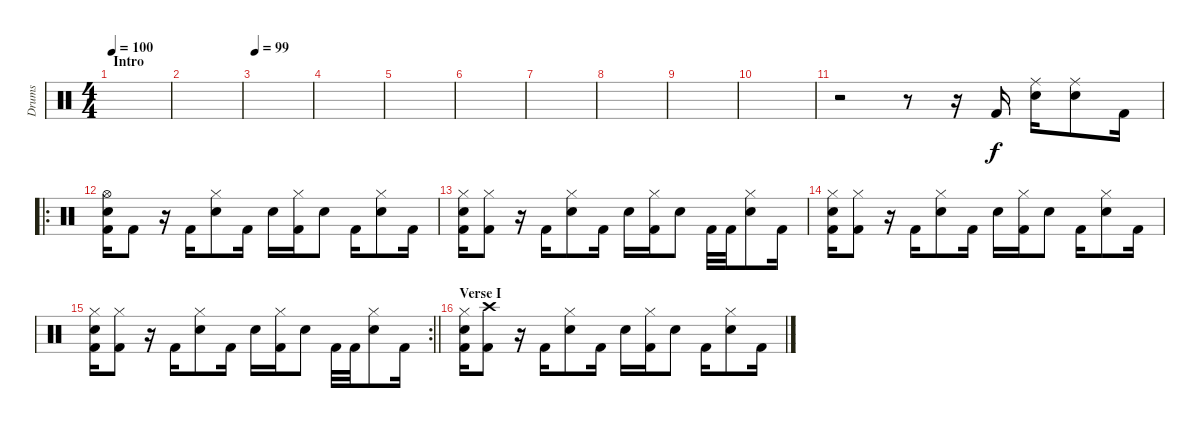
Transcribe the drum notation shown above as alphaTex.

\track ("Drums" "Drums") {instrument percussion}
\staff {score}
\articulation defaults
\ts (4 4)
\section ("" "Intro")
\tempo 100
\tempo 80
\tempo 100
\clef neutral
\ks c
|
|
\tempo 99
|
|
|
|
|
|
|
|
r.2 r.8 r.16 "Kick (hit) 2".16 ("Ride (middle)" "Snare (hit) 2").16 ("Ride (middle)" "Snare (hit) 2").8 "Kick (hit) 2".16 |
\ro
("Hi-Hat (open)" "Snare (hit) 2" "Kick (hit) 2").16 "Kick (hit) 2".8 r.16 "Kick (hit) 2".16 ("Hi-Hat (closed)" "Snare (hit) 2").8 "Kick (hit) 2".16 "Snare (hit) 2".16 ("Hi-Hat (closed)" "Kick (hit) 2").16 "Snare (hit) 2".8 "Kick (hit) 2".16 ("Hi-Hat (closed)" "Snare (hit) 2").8 "Kick (hit) 2".16 |
("Hi-Hat (closed)" "Snare (hit) 2" "Kick (hit) 2").16 ("Hi-Hat (closed)" "Kick (hit) 2").8 r.16 "Kick (hit) 2".16 ("Hi-Hat (closed)" "Snare (hit) 2").8 "Kick (hit) 2".16 "Snare (hit) 2".16 ("Hi-Hat (closed)" "Kick (hit) 2").16 "Snare (hit) 2".8 "Kick (hit) 2".32 "Kick (hit) 2".32 ("Hi-Hat (closed)" "Snare (hit) 2").8 "Kick (hit) 2".16 |
("Hi-Hat (closed)" "Snare (hit) 2" "Kick (hit) 2").16 ("Hi-Hat (closed)" "Kick (hit) 2").8 r.16 "Kick (hit) 2".16 ("Hi-Hat (closed)" "Snare (hit) 2").8 "Kick (hit) 2".16 "Snare (hit) 2".16 ("Hi-Hat (closed)" "Kick (hit) 2").16 "Snare (hit) 2".8 "Kick (hit) 2".16 ("Hi-Hat (closed)" "Snare (hit) 2").8 "Kick (hit) 2".16 |
\rc 2
\barLineRight lightlight
("Hi-Hat (closed)" "Snare (hit) 2" "Kick (hit) 2").16 ("Hi-Hat (closed)" "Kick (hit) 2").8 r.16 "Kick (hit) 2".16 ("Hi-Hat (closed)" "Snare (hit) 2").8 "Kick (hit) 2".16 "Snare (hit) 2".16 ("Hi-Hat (closed)" "Kick (hit) 2").16 "Snare (hit) 2".8 "Kick (hit) 2".32 "Kick (hit) 2".32 ("Hi-Hat (closed)" "Snare (hit) 2").8 "Kick (hit) 2".16 |
\section ("" "Verse I")
("Hi-Hat (closed)" "Snare (hit) 2" "Kick (hit) 2").16 ("Crash high (hit)" "Kick (hit) 2").8 r.16 "Kick (hit) 2".16 ("Hi-Hat (closed)" "Snare (hit) 2").8 "Kick (hit) 2".16 "Snare (hit) 2".16 ("Hi-Hat (closed)" "Kick (hit) 2").16 "Snare (hit) 2".8 "Kick (hit) 2".16 ("Hi-Hat (closed)" "Snare (hit) 2").8 "Kick (hit) 2".16
